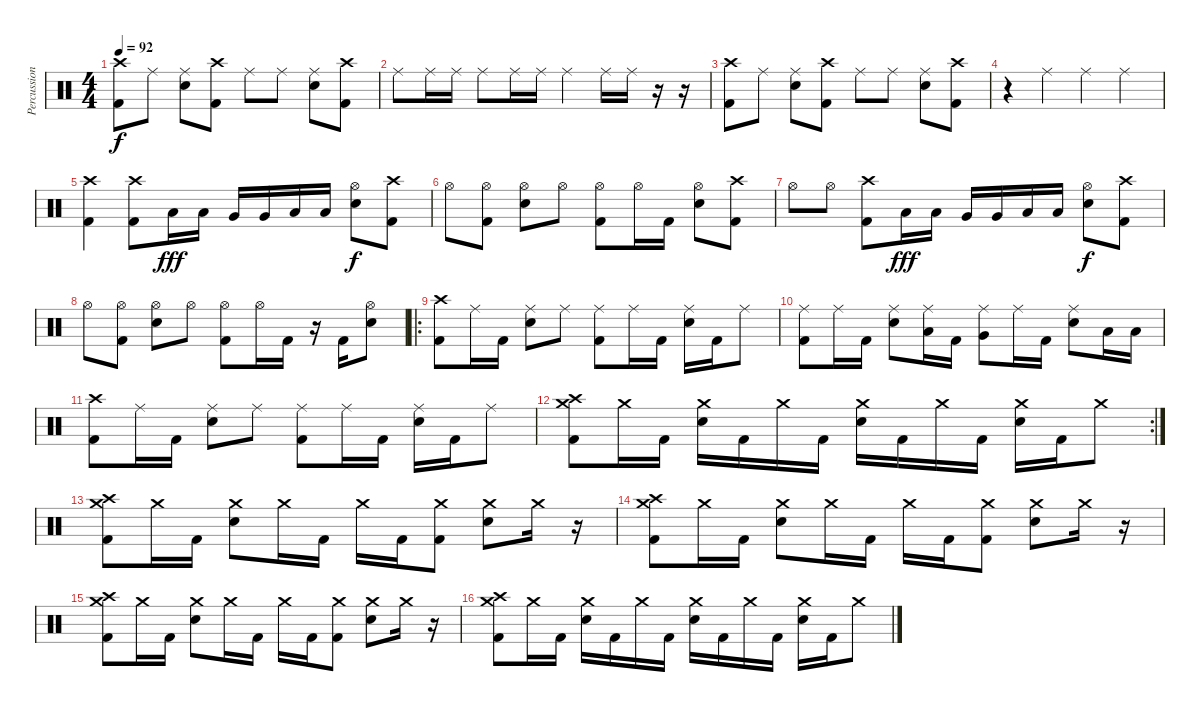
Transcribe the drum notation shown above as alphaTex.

\track ("Percussions" "Percussion") {instrument percussion}
\staff {score}
\articulation defaults
\ts (4 4)
\tempo 92
\clef neutral
\ks c
("Crash high (hit)" "Kick (hit) 2").8{dy f} "Ride (middle)".8 ("Ride (middle)" "Electric Snare (hit)").8 ("Crash high (hit)" "Kick (hit) 2").8 "Ride (middle)".8 "Ride (middle)".8 ("Ride (middle)" "Electric Snare (hit)").8 ("Crash high (hit)" "Kick (hit) 2").8 |
"Ride (middle)".8 "Ride (middle)".16 "Ride (middle)".16 "Ride (middle)".8 "Ride (middle)".16 "Ride (middle)".16 "Ride (middle)".4 "Ride (middle)".16 "Ride (middle)".16 r.16 r.16 |
("Crash high (hit)" "Kick (hit) 2").8 "Ride (middle)".8 ("Ride (middle)" "Electric Snare (hit)").8 ("Crash high (hit)" "Kick (hit) 2").8 "Ride (middle)".8 "Ride (middle)".8 ("Ride (middle)" "Electric Snare (hit)").8 ("Crash high (hit)" "Kick (hit) 2").8 |
r.4 "Ride (middle)".4 "Ride (middle)".4 "Ride (middle)".4 |
("Crash high (hit)" "Kick (hit) 2").4 ("Crash high (hit)" "Kick (hit) 2").8 "Low Tom (hit)".16{dy fff} "Low Tom (hit)".16 "Very Low Tom (hit)".16 "Very Low Tom (hit)".16 "Low Floor Tom (hit)".16 "Low Floor Tom (hit)".16 ("Hi-Hat (open)" "Electric Snare (hit)").8{dy f} ("Crash high (hit)" "Kick (hit) 2").8 |
"Hi-Hat (open)".8 ("Hi-Hat (open)" "Kick (hit) 2").8 ("Hi-Hat (open)" "Electric Snare (hit)").8 "Hi-Hat (open)".8 ("Hi-Hat (open)" "Kick (hit) 2").8 "Hi-Hat (open)".16 "Kick (hit) 2".16 ("Hi-Hat (open)" "Electric Snare (hit)").8 ("Crash high (hit)" "Kick (hit) 2").8 |
"Hi-Hat (open)".8 "Hi-Hat (open)".8 ("Crash high (hit)" "Kick (hit) 2").8 "Low Tom (hit)".16{dy fff} "Low Tom (hit)".16 "Very Low Tom (hit)".16 "Very Low Tom (hit)".16 "Low Floor Tom (hit)".16 "Low Floor Tom (hit)".16 ("Hi-Hat (open)" "Electric Snare (hit)").8{dy f} ("Crash high (hit)" "Kick (hit) 2").8 |
"Hi-Hat (open)".8 ("Hi-Hat (open)" "Kick (hit) 2").8 ("Hi-Hat (open)" "Electric Snare (hit)").8 "Hi-Hat (open)".8 ("Hi-Hat (open)" "Kick (hit) 2").8 "Hi-Hat (open)".16 "Kick (hit) 2".16 r.16 "Kick (hit) 2".16 ("Hi-Hat (open)" "Electric Snare (hit)").8 |
\ro
("Crash high (hit)" "Kick (hit) 2").8 "Ride (middle)".16 "Kick (hit) 2".16 ("Ride (middle)" "Electric Snare (hit)").8 "Ride (middle)".8 ("Ride (middle)" "Kick (hit) 2").8 "Ride (middle)".16 "Kick (hit) 2".16 ("Ride (middle)" "Electric Snare (hit)").16 "Kick (hit) 2".16 "Ride (middle)".8 |
("Ride (middle)" "Kick (hit) 2").8 "Ride (middle)".16 "Kick (hit) 2".16 ("Ride (middle)" "Electric Snare (hit)").8 ("Ride (middle)" "Low Tom (hit)").16 "Kick (hit) 2".16 ("Ride (middle)" "Very Low Tom (hit)").8 "Ride (middle)".16 "Kick (hit) 2".16 ("Ride (middle)" "Electric Snare (hit)").8 "Low Floor Tom (hit)".16 "Low Floor Tom (hit)".16 |
("Crash high (hit)" "Kick (hit) 2").8 "Ride (middle)".16 "Kick (hit) 2".16 ("Ride (middle)" "Electric Snare (hit)").8 "Ride (middle)".8 ("Ride (middle)" "Kick (hit) 2").8 "Ride (middle)".16 "Kick (hit) 2".16 ("Ride (middle)" "Electric Snare (hit)").16 "Kick (hit) 2".16 "Ride (middle)".8 |
\rc 2
("Crash high (hit)" "Crash medium (hit)" "Kick (hit) 2").8 "Crash medium (hit)".16 "Kick (hit) 2".16 ("Crash medium (hit)" "Electric Snare (hit)").16 "Kick (hit) 2".16 "Crash medium (hit)".16 "Kick (hit) 2".16 ("Crash medium (hit)" "Electric Snare (hit)").16 "Kick (hit) 2".16 "Crash medium (hit)".16 "Kick (hit) 2".16 ("Crash medium (hit)" "Electric Snare (hit)").16 "Kick (hit) 2".16 "Crash medium (hit)".8 |
("Crash high (hit)" "Crash medium (hit)" "Kick (hit) 2").8 "Crash medium (hit)".16 "Kick (hit) 2".16 ("Crash medium (hit)" "Electric Snare (hit)").8 "Crash medium (hit)".16 "Kick (hit) 2".16 "Crash medium (hit)".16 "Kick (hit) 2".16 ("Crash medium (hit)" "Kick (hit) 2").8 ("Crash medium (hit)" "Electric Snare (hit)").8 "Crash medium (hit)".16 r.16 |
("Crash high (hit)" "Crash medium (hit)" "Kick (hit) 2").8 "Crash medium (hit)".16 "Kick (hit) 2".16 ("Crash medium (hit)" "Electric Snare (hit)").8 "Crash medium (hit)".16 "Kick (hit) 2".16 "Crash medium (hit)".16 "Kick (hit) 2".16 ("Crash medium (hit)" "Kick (hit) 2").8 ("Crash medium (hit)" "Electric Snare (hit)").8 "Crash medium (hit)".16 r.16 |
("Crash high (hit)" "Crash medium (hit)" "Kick (hit) 2").8 "Crash medium (hit)".16 "Kick (hit) 2".16 ("Crash medium (hit)" "Electric Snare (hit)").8 "Crash medium (hit)".16 "Kick (hit) 2".16 "Crash medium (hit)".16 "Kick (hit) 2".16 ("Crash medium (hit)" "Kick (hit) 2").8 ("Crash medium (hit)" "Electric Snare (hit)").8 "Crash medium (hit)".16 r.16 |
("Crash high (hit)" "Crash medium (hit)" "Kick (hit) 2").8 "Crash medium (hit)".16 "Kick (hit) 2".16 ("Crash medium (hit)" "Electric Snare (hit)").16 "Kick (hit) 2".16 "Crash medium (hit)".16 "Kick (hit) 2".16 ("Crash medium (hit)" "Electric Snare (hit)").16 "Kick (hit) 2".16 "Crash medium (hit)".16 "Kick (hit) 2".16 ("Crash medium (hit)" "Electric Snare (hit)").16 "Kick (hit) 2".16 "Crash medium (hit)".8
